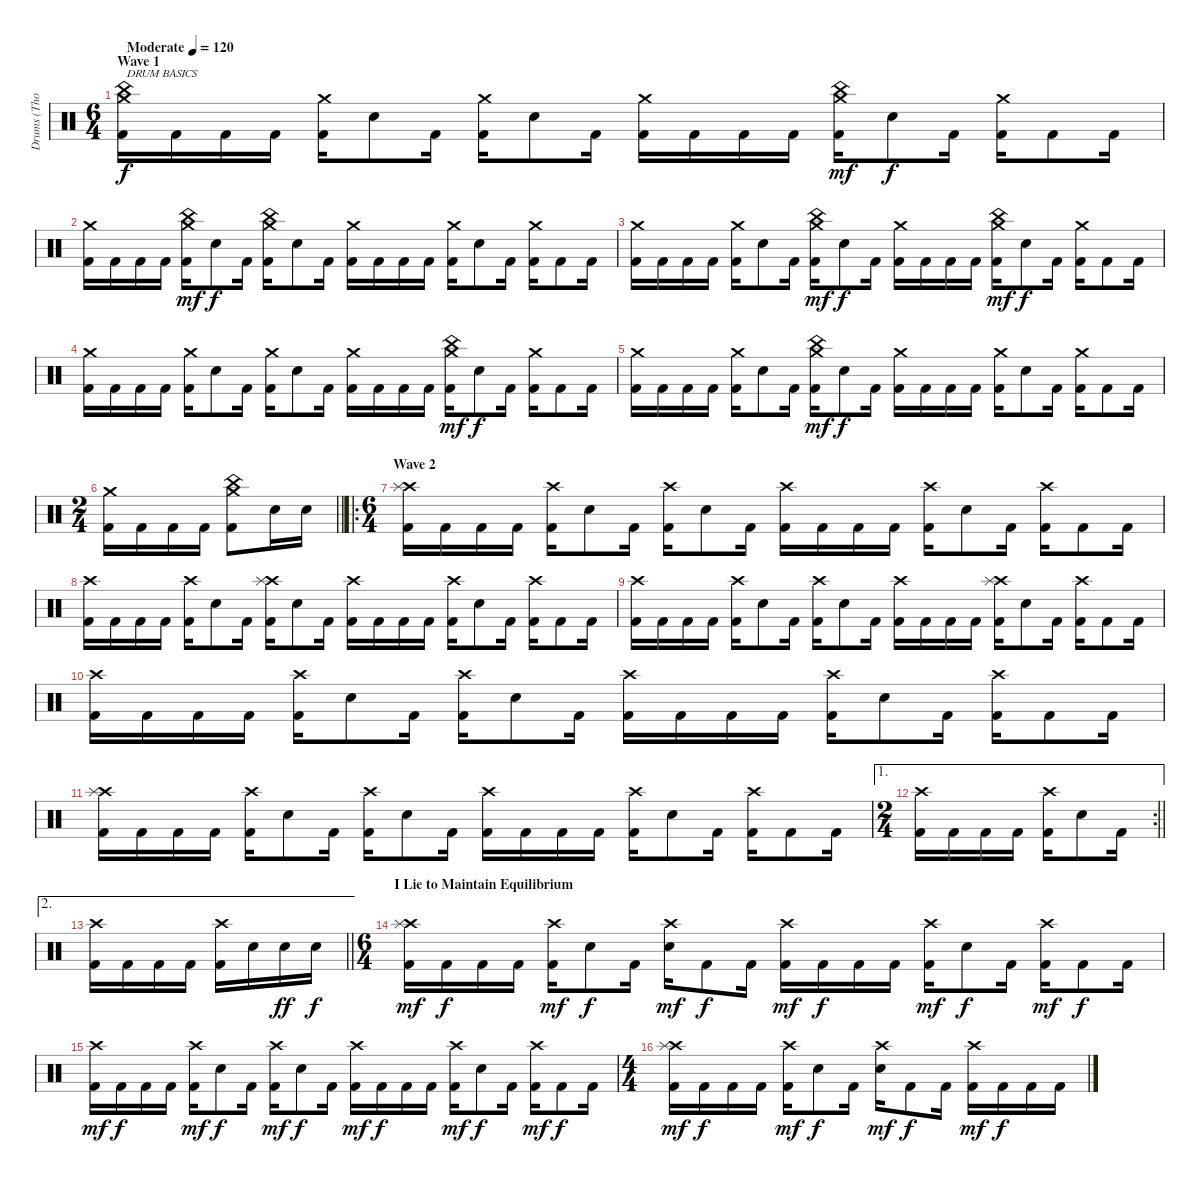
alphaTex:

\track ("Drums (Thomas Haake)" "Drums (Tho") {instrument percussion}
\staff {score}
\articulation defaults
\ts (6 4)
\section ("" "Wave 1")
\tempo (120 "Moderate")
\clef neutral
\ks c
("Crash medium (hit)" "China (hit)" "Kick (hit) 2").16{txt "DRUM BASICS" dy f} "Kick (hit) 2".16 "Kick (hit) 2".16 "Kick (hit) 2".16 ("Crash medium (hit)" "Kick (hit) 2").16 "Electric Snare (hit)".8 "Kick (hit) 2".16 ("Crash medium (hit)" "Kick (hit) 2").16 "Electric Snare (hit)".8 "Kick (hit) 2".16 ("Crash medium (hit)" "Kick (hit) 2").16 "Kick (hit) 2".16 "Kick (hit) 2".16 "Kick (hit) 2".16 ("Crash medium (hit)" "China (hit)" "Kick (hit) 2").16{dy mf} "Electric Snare (hit)".8{dy f} "Kick (hit) 2".16 ("Crash medium (hit)" "Kick (hit) 2").16 "Kick (hit) 2".8 "Kick (hit) 2".16 |
("Crash medium (hit)" "Kick (hit) 2").16 "Kick (hit) 2".16 "Kick (hit) 2".16 "Kick (hit) 2".16 ("Crash medium (hit)" "China (hit)" "Kick (hit) 2").16{dy mf} "Electric Snare (hit)".8{dy f} "Kick (hit) 2".16 ("Crash medium (hit)" "China (hit)" "Kick (hit) 2").16 "Electric Snare (hit)".8 "Kick (hit) 2".16 ("Crash medium (hit)" "Kick (hit) 2").16 "Kick (hit) 2".16 "Kick (hit) 2".16 "Kick (hit) 2".16 ("Crash medium (hit)" "Kick (hit) 2").16 "Electric Snare (hit)".8 "Kick (hit) 2".16 ("Crash medium (hit)" "Kick (hit) 2").16 "Kick (hit) 2".8 "Kick (hit) 2".16 |
("Crash medium (hit)" "Kick (hit) 2").16 "Kick (hit) 2".16 "Kick (hit) 2".16 "Kick (hit) 2".16 ("Crash medium (hit)" "Kick (hit) 2").16 "Electric Snare (hit)".8 "Kick (hit) 2".16 ("Crash medium (hit)" "China (hit)" "Kick (hit) 2").16{dy mf} "Electric Snare (hit)".8{dy f} "Kick (hit) 2".16 ("Crash medium (hit)" "Kick (hit) 2").16 "Kick (hit) 2".16 "Kick (hit) 2".16 "Kick (hit) 2".16 ("Crash medium (hit)" "China (hit)" "Kick (hit) 2").16{dy mf} "Electric Snare (hit)".8{dy f} "Kick (hit) 2".16 ("Crash medium (hit)" "Kick (hit) 2").16 "Kick (hit) 2".8 "Kick (hit) 2".16 |
("Crash medium (hit)" "Kick (hit) 2").16 "Kick (hit) 2".16 "Kick (hit) 2".16 "Kick (hit) 2".16 ("Crash medium (hit)" "Kick (hit) 2").16 "Electric Snare (hit)".8 "Kick (hit) 2".16 ("Crash medium (hit)" "Kick (hit) 2").16 "Electric Snare (hit)".8 "Kick (hit) 2".16 ("Crash medium (hit)" "Kick (hit) 2").16 "Kick (hit) 2".16 "Kick (hit) 2".16 "Kick (hit) 2".16 ("Crash medium (hit)" "China (hit)" "Kick (hit) 2").16{dy mf} "Electric Snare (hit)".8{dy f} "Kick (hit) 2".16 ("Crash medium (hit)" "Kick (hit) 2").16 "Kick (hit) 2".8 "Kick (hit) 2".16 |
("Crash medium (hit)" "Kick (hit) 2").16 "Kick (hit) 2".16 "Kick (hit) 2".16 "Kick (hit) 2".16 ("Crash medium (hit)" "Kick (hit) 2").16 "Electric Snare (hit)".8 "Kick (hit) 2".16 ("Crash medium (hit)" "China (hit)" "Kick (hit) 2").16{dy mf} "Electric Snare (hit)".8{dy f} "Kick (hit) 2".16 ("Crash medium (hit)" "Kick (hit) 2").16 "Kick (hit) 2".16 "Kick (hit) 2".16 "Kick (hit) 2".16 ("Crash medium (hit)" "Kick (hit) 2").16 "Electric Snare (hit)".8 "Kick (hit) 2".16 ("Crash medium (hit)" "Kick (hit) 2").16 "Kick (hit) 2".8 "Kick (hit) 2".16 |
\ts (2 4)
\barLineRight lightlight
("Crash medium (hit)" "Kick (hit) 2").16 "Kick (hit) 2".16 "Kick (hit) 2".16 "Kick (hit) 2".16 ("Crash medium (hit)" "China (hit)" "Kick (hit) 2").8 "Electric Snare (hit)".16 "Electric Snare (hit)".16 |
\ro
\ts (6 4)
\section ("" "Wave 2")
("Crash high (hit)" "Splash (hit)" "Kick (hit) 2").16 "Kick (hit) 2".16 "Kick (hit) 2".16 "Kick (hit) 2".16 ("Crash high (hit)" "Kick (hit) 2").16 "Electric Snare (hit)".8 "Kick (hit) 2".16 ("Crash high (hit)" "Kick (hit) 2").16 "Electric Snare (hit)".8 "Kick (hit) 2".16 ("Crash high (hit)" "Kick (hit) 2").16 "Kick (hit) 2".16 "Kick (hit) 2".16 "Kick (hit) 2".16 ("Crash high (hit)" "Kick (hit) 2").16 "Electric Snare (hit)".8 "Kick (hit) 2".16 ("Crash high (hit)" "Kick (hit) 2").16 "Kick (hit) 2".8 "Kick (hit) 2".16 |
("Crash high (hit)" "Kick (hit) 2").16 "Kick (hit) 2".16 "Kick (hit) 2".16 "Kick (hit) 2".16 ("Crash high (hit)" "Kick (hit) 2").16 "Electric Snare (hit)".8 "Kick (hit) 2".16 ("Crash high (hit)" "Splash (hit)" "Kick (hit) 2").16 "Electric Snare (hit)".8 "Kick (hit) 2".16 ("Crash high (hit)" "Kick (hit) 2").16 "Kick (hit) 2".16 "Kick (hit) 2".16 "Kick (hit) 2".16 ("Crash high (hit)" "Kick (hit) 2").16 "Electric Snare (hit)".8 "Kick (hit) 2".16 ("Crash high (hit)" "Kick (hit) 2").16 "Kick (hit) 2".8 "Kick (hit) 2".16 |
("Crash high (hit)" "Kick (hit) 2").16 "Kick (hit) 2".16 "Kick (hit) 2".16 "Kick (hit) 2".16 ("Crash high (hit)" "Kick (hit) 2").16 "Electric Snare (hit)".8 "Kick (hit) 2".16 ("Crash high (hit)" "Kick (hit) 2").16 "Electric Snare (hit)".8 "Kick (hit) 2".16 ("Crash high (hit)" "Kick (hit) 2").16 "Kick (hit) 2".16 "Kick (hit) 2".16 "Kick (hit) 2".16 ("Crash high (hit)" "Splash (hit)" "Kick (hit) 2").16 "Electric Snare (hit)".8 "Kick (hit) 2".16 ("Crash high (hit)" "Kick (hit) 2").16 "Kick (hit) 2".8 "Kick (hit) 2".16 |
("Crash high (hit)" "Kick (hit) 2").16 "Kick (hit) 2".16 "Kick (hit) 2".16 "Kick (hit) 2".16 ("Crash high (hit)" "Kick (hit) 2").16 "Electric Snare (hit)".8 "Kick (hit) 2".16 ("Crash high (hit)" "Kick (hit) 2").16 "Electric Snare (hit)".8 "Kick (hit) 2".16 ("Crash high (hit)" "Kick (hit) 2").16 "Kick (hit) 2".16 "Kick (hit) 2".16 "Kick (hit) 2".16 ("Crash high (hit)" "Kick (hit) 2").16 "Electric Snare (hit)".8 "Kick (hit) 2".16 ("Crash high (hit)" "Kick (hit) 2").16 "Kick (hit) 2".8 "Kick (hit) 2".16 |
("Crash high (hit)" "Splash (hit)" "Kick (hit) 2").16 "Kick (hit) 2".16 "Kick (hit) 2".16 "Kick (hit) 2".16 ("Crash high (hit)" "Kick (hit) 2").16 "Electric Snare (hit)".8 "Kick (hit) 2".16 ("Crash high (hit)" "Kick (hit) 2").16 "Electric Snare (hit)".8 "Kick (hit) 2".16 ("Crash high (hit)" "Kick (hit) 2").16 "Kick (hit) 2".16 "Kick (hit) 2".16 "Kick (hit) 2".16 ("Crash high (hit)" "Kick (hit) 2").16 "Electric Snare (hit)".8 "Kick (hit) 2".16 ("Crash high (hit)" "Kick (hit) 2").16 "Kick (hit) 2".8 "Kick (hit) 2".16 |
\ae 1
\rc 2
\ts (2 4)
\barLineRight lightlight
("Crash high (hit)" "Kick (hit) 2").16 "Kick (hit) 2".16 "Kick (hit) 2".16 "Kick (hit) 2".16 ("Crash high (hit)" "Kick (hit) 2").16 "Electric Snare (hit)".8 "Kick (hit) 2".16 |
\ae 2
\barLineRight lightlight
("Crash high (hit)" "Kick (hit) 2").16 "Kick (hit) 2".16 "Kick (hit) 2".16 "Kick (hit) 2".16 ("Crash high (hit)" "Kick (hit) 2").16 "Electric Snare (hit)".16 "Electric Snare (hit)".16{dy ff} "Electric Snare (hit)".16{dy f} |
\ts (6 4)
\section ("" "I Lie to Maintain Equilibrium")
("Crash high (hit)" "Splash (hit)" "Kick (hit) 2").16{dy mf} "Kick (hit) 2".16{dy f} "Kick (hit) 2".16 "Kick (hit) 2".16 ("Crash high (hit)" "Kick (hit) 2").16{dy mf} "Electric Snare (hit)".8{dy f} "Kick (hit) 2".16 ("Crash high (hit)" "Electric Snare (hit)").16{dy mf} "Kick (hit) 2".8{dy f} "Kick (hit) 2".16 ("Crash high (hit)" "Kick (hit) 2").16{dy mf} "Kick (hit) 2".16{dy f} "Kick (hit) 2".16 "Kick (hit) 2".16 ("Crash high (hit)" "Kick (hit) 2").16{dy mf} "Electric Snare (hit)".8{dy f} "Kick (hit) 2".16 ("Crash high (hit)" "Kick (hit) 2").16{dy mf} "Kick (hit) 2".8{dy f} "Kick (hit) 2".16 |
("Crash high (hit)" "Kick (hit) 2").16{dy mf} "Kick (hit) 2".16{dy f} "Kick (hit) 2".16 "Kick (hit) 2".16 ("Crash high (hit)" "Kick (hit) 2").16{dy mf} "Electric Snare (hit)".8{dy f} "Kick (hit) 2".16 ("Crash high (hit)" "Kick (hit) 2").16{dy mf} "Electric Snare (hit)".8{dy f} "Kick (hit) 2".16 ("Crash high (hit)" "Kick (hit) 2").16{dy mf} "Kick (hit) 2".16{dy f} "Kick (hit) 2".16 "Kick (hit) 2".16 ("Crash high (hit)" "Kick (hit) 2").16{dy mf} "Electric Snare (hit)".8{dy f} "Kick (hit) 2".16 ("Crash high (hit)" "Kick (hit) 2").16{dy mf} "Kick (hit) 2".8{dy f} "Kick (hit) 2".16 |
\ts (4 4)
("Crash high (hit)" "Splash (hit)" "Kick (hit) 2").16{dy mf} "Kick (hit) 2".16{dy f} "Kick (hit) 2".16 "Kick (hit) 2".16 ("Crash high (hit)" "Kick (hit) 2").16{dy mf} "Electric Snare (hit)".8{dy f} "Kick (hit) 2".16 ("Crash high (hit)" "Electric Snare (hit)").16{dy mf} "Kick (hit) 2".8{dy f} "Kick (hit) 2".16 ("Crash high (hit)" "Kick (hit) 2").16{dy mf} "Kick (hit) 2".16{dy f} "Kick (hit) 2".16 "Kick (hit) 2".16
